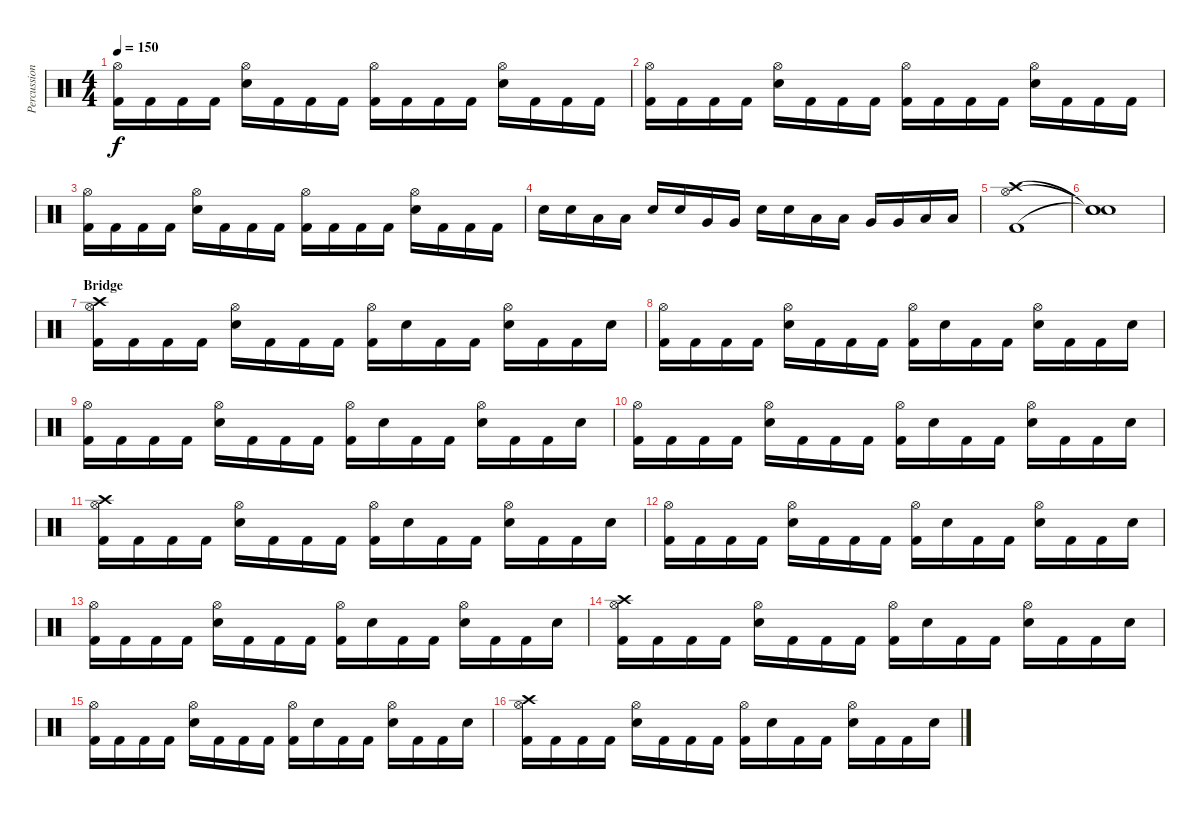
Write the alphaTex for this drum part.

\track ("Percussions" "Percussion") {instrument percussion}
\staff {score}
\articulation defaults
\ts (4 4)
\tempo 150
\clef neutral
\ks c
("Hi-Hat (open)" "Kick (hit) 2").16{dy f} "Kick (hit) 2".16 "Kick (hit) 2".16 "Kick (hit) 2".16 ("Hi-Hat (open)" "Electric Snare (hit)").16 "Kick (hit) 2".16 "Kick (hit) 2".16 "Kick (hit) 2".16 ("Hi-Hat (open)" "Kick (hit) 2").16 "Kick (hit) 2".16 "Kick (hit) 2".16 "Kick (hit) 2".16 ("Hi-Hat (open)" "Electric Snare (hit)").16 "Kick (hit) 2".16 "Kick (hit) 2".16 "Kick (hit) 2".16 |
("Hi-Hat (open)" "Kick (hit) 2").16 "Kick (hit) 2".16 "Kick (hit) 2".16 "Kick (hit) 2".16 ("Hi-Hat (open)" "Electric Snare (hit)").16 "Kick (hit) 2".16 "Kick (hit) 2".16 "Kick (hit) 2".16 ("Hi-Hat (open)" "Kick (hit) 2").16 "Kick (hit) 2".16 "Kick (hit) 2".16 "Kick (hit) 2".16 ("Hi-Hat (open)" "Electric Snare (hit)").16 "Kick (hit) 2".16 "Kick (hit) 2".16 "Kick (hit) 2".16 |
("Hi-Hat (open)" "Kick (hit) 2").16 "Kick (hit) 2".16 "Kick (hit) 2".16 "Kick (hit) 2".16 ("Hi-Hat (open)" "Electric Snare (hit)").16 "Kick (hit) 2".16 "Kick (hit) 2".16 "Kick (hit) 2".16 ("Hi-Hat (open)" "Kick (hit) 2").16 "Kick (hit) 2".16 "Kick (hit) 2".16 "Kick (hit) 2".16 ("Hi-Hat (open)" "Electric Snare (hit)").16 "Kick (hit) 2".16 "Kick (hit) 2".16 "Kick (hit) 2".16 |
"Electric Snare (hit)".16 "Electric Snare (hit)".16 "Low Tom (hit)".16 "Low Tom (hit)".16 "Electric Snare (hit)".16 "Electric Snare (hit)".16 "Very Low Tom (hit)".16 "Very Low Tom (hit)".16 "Electric Snare (hit)".16 "Electric Snare (hit)".16 "Low Tom (hit)".16 "Low Tom (hit)".16 "Very Low Tom (hit)".16 "Very Low Tom (hit)".16 "Low Floor Tom (hit)".16 "Low Floor Tom (hit)".16 |
("Crash high (hit)" "Hi-Hat (open)" "Kick (hit) 2").1 |
("Snare (hit)"{t} "Snare (hit)"{t} "Snare (hit)"{t}).1 |
\section ("" "Bridge")
("Crash high (hit)" "Hi-Hat (open)" "Kick (hit) 2").16 "Kick (hit) 2".16 "Kick (hit) 2".16 "Kick (hit) 2".16 ("Hi-Hat (open)" "Electric Snare (hit)").16 "Kick (hit) 2".16 "Kick (hit) 2".16 "Kick (hit) 2".16 ("Hi-Hat (open)" "Kick (hit) 2").16 "Electric Snare (hit)".16 "Kick (hit) 2".16 "Kick (hit) 2".16 ("Hi-Hat (open)" "Electric Snare (hit)").16 "Kick (hit) 2".16 "Kick (hit) 2".16 "Electric Snare (hit)".16 |
("Hi-Hat (open)" "Kick (hit) 2").16 "Kick (hit) 2".16 "Kick (hit) 2".16 "Kick (hit) 2".16 ("Hi-Hat (open)" "Electric Snare (hit)").16 "Kick (hit) 2".16 "Kick (hit) 2".16 "Kick (hit) 2".16 ("Hi-Hat (open)" "Kick (hit) 2").16 "Electric Snare (hit)".16 "Kick (hit) 2".16 "Kick (hit) 2".16 ("Hi-Hat (open)" "Electric Snare (hit)").16 "Kick (hit) 2".16 "Kick (hit) 2".16 "Electric Snare (hit)".16 |
("Hi-Hat (open)" "Kick (hit) 2").16 "Kick (hit) 2".16 "Kick (hit) 2".16 "Kick (hit) 2".16 ("Hi-Hat (open)" "Electric Snare (hit)").16 "Kick (hit) 2".16 "Kick (hit) 2".16 "Kick (hit) 2".16 ("Hi-Hat (open)" "Kick (hit) 2").16 "Electric Snare (hit)".16 "Kick (hit) 2".16 "Kick (hit) 2".16 ("Hi-Hat (open)" "Electric Snare (hit)").16 "Kick (hit) 2".16 "Kick (hit) 2".16 "Electric Snare (hit)".16 |
("Hi-Hat (open)" "Kick (hit) 2").16 "Kick (hit) 2".16 "Kick (hit) 2".16 "Kick (hit) 2".16 ("Hi-Hat (open)" "Electric Snare (hit)").16 "Kick (hit) 2".16 "Kick (hit) 2".16 "Kick (hit) 2".16 ("Hi-Hat (open)" "Kick (hit) 2").16 "Electric Snare (hit)".16 "Kick (hit) 2".16 "Kick (hit) 2".16 ("Hi-Hat (open)" "Electric Snare (hit)").16 "Kick (hit) 2".16 "Kick (hit) 2".16 "Electric Snare (hit)".16 |
("Crash high (hit)" "Hi-Hat (open)" "Kick (hit) 2").16 "Kick (hit) 2".16 "Kick (hit) 2".16 "Kick (hit) 2".16 ("Hi-Hat (open)" "Electric Snare (hit)").16 "Kick (hit) 2".16 "Kick (hit) 2".16 "Kick (hit) 2".16 ("Hi-Hat (open)" "Kick (hit) 2").16 "Electric Snare (hit)".16 "Kick (hit) 2".16 "Kick (hit) 2".16 ("Hi-Hat (open)" "Electric Snare (hit)").16 "Kick (hit) 2".16 "Kick (hit) 2".16 "Electric Snare (hit)".16 |
("Hi-Hat (open)" "Kick (hit) 2").16 "Kick (hit) 2".16 "Kick (hit) 2".16 "Kick (hit) 2".16 ("Hi-Hat (open)" "Electric Snare (hit)").16 "Kick (hit) 2".16 "Kick (hit) 2".16 "Kick (hit) 2".16 ("Hi-Hat (open)" "Kick (hit) 2").16 "Electric Snare (hit)".16 "Kick (hit) 2".16 "Kick (hit) 2".16 ("Hi-Hat (open)" "Electric Snare (hit)").16 "Kick (hit) 2".16 "Kick (hit) 2".16 "Electric Snare (hit)".16 |
("Hi-Hat (open)" "Kick (hit) 2").16 "Kick (hit) 2".16 "Kick (hit) 2".16 "Kick (hit) 2".16 ("Hi-Hat (open)" "Electric Snare (hit)").16 "Kick (hit) 2".16 "Kick (hit) 2".16 "Kick (hit) 2".16 ("Hi-Hat (open)" "Kick (hit) 2").16 "Electric Snare (hit)".16 "Kick (hit) 2".16 "Kick (hit) 2".16 ("Hi-Hat (open)" "Electric Snare (hit)").16 "Kick (hit) 2".16 "Kick (hit) 2".16 "Electric Snare (hit)".16 |
("Crash high (hit)" "Hi-Hat (open)" "Kick (hit) 2").16 "Kick (hit) 2".16 "Kick (hit) 2".16 "Kick (hit) 2".16 ("Hi-Hat (open)" "Electric Snare (hit)").16 "Kick (hit) 2".16 "Kick (hit) 2".16 "Kick (hit) 2".16 ("Hi-Hat (open)" "Kick (hit) 2").16 "Electric Snare (hit)".16 "Kick (hit) 2".16 "Kick (hit) 2".16 ("Hi-Hat (open)" "Electric Snare (hit)").16 "Kick (hit) 2".16 "Kick (hit) 2".16 "Electric Snare (hit)".16 |
("Hi-Hat (open)" "Kick (hit) 2").16 "Kick (hit) 2".16 "Kick (hit) 2".16 "Kick (hit) 2".16 ("Hi-Hat (open)" "Electric Snare (hit)").16 "Kick (hit) 2".16 "Kick (hit) 2".16 "Kick (hit) 2".16 ("Hi-Hat (open)" "Kick (hit) 2").16 "Electric Snare (hit)".16 "Kick (hit) 2".16 "Kick (hit) 2".16 ("Hi-Hat (open)" "Electric Snare (hit)").16 "Kick (hit) 2".16 "Kick (hit) 2".16 "Electric Snare (hit)".16 |
("Crash high (hit)" "Hi-Hat (open)" "Kick (hit) 2").16 "Kick (hit) 2".16 "Kick (hit) 2".16 "Kick (hit) 2".16 ("Hi-Hat (open)" "Electric Snare (hit)").16 "Kick (hit) 2".16 "Kick (hit) 2".16 "Kick (hit) 2".16 ("Hi-Hat (open)" "Kick (hit) 2").16 "Electric Snare (hit)".16 "Kick (hit) 2".16 "Kick (hit) 2".16 ("Hi-Hat (open)" "Electric Snare (hit)").16 "Kick (hit) 2".16 "Kick (hit) 2".16 "Electric Snare (hit)".16
